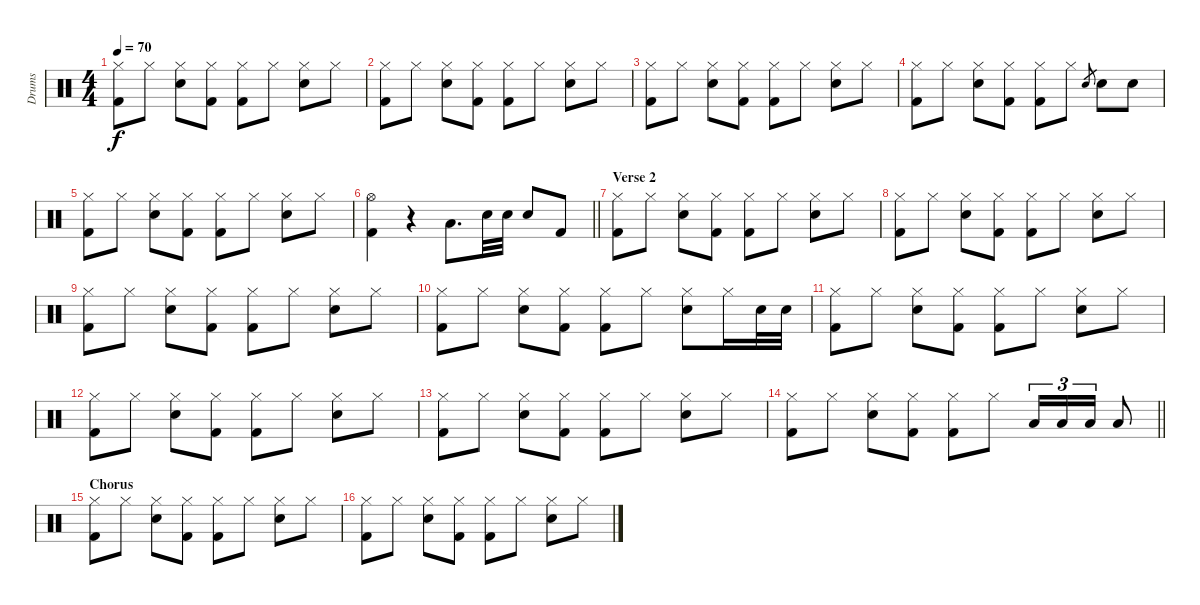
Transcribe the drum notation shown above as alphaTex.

\track ("Drums" "Drums") {instrument percussion}
\staff {score}
\articulation defaults
\ts (4 4)
\tempo 70
\clef neutral
\ks c
("Kick (hit) 2" "Hi-Hat (closed)").8{dy f} "Hi-Hat (closed)".8 ("Snare (hit) 2" "Hi-Hat (closed)").8 ("Kick (hit) 2" "Hi-Hat (closed)").8 ("Kick (hit) 2" "Hi-Hat (closed)").8 "Hi-Hat (closed)".8 ("Snare (hit) 2" "Hi-Hat (closed)").8 "Hi-Hat (closed)".8 |
("Kick (hit) 2" "Hi-Hat (closed)").8 "Hi-Hat (closed)".8 ("Snare (hit) 2" "Hi-Hat (closed)").8 ("Kick (hit) 2" "Hi-Hat (closed)").8 ("Kick (hit) 2" "Hi-Hat (closed)").8 "Hi-Hat (closed)".8 ("Snare (hit) 2" "Hi-Hat (closed)").8 "Hi-Hat (closed)".8 |
("Kick (hit) 2" "Hi-Hat (closed)").8 "Hi-Hat (closed)".8 ("Snare (hit) 2" "Hi-Hat (closed)").8 ("Kick (hit) 2" "Hi-Hat (closed)").8 ("Kick (hit) 2" "Hi-Hat (closed)").8 "Hi-Hat (closed)".8 ("Snare (hit) 2" "Hi-Hat (closed)").8 "Hi-Hat (closed)".8 |
("Kick (hit) 2" "Hi-Hat (closed)").8 "Hi-Hat (closed)".8 ("Snare (hit) 2" "Hi-Hat (closed)").8 ("Kick (hit) 2" "Hi-Hat (closed)").8 ("Kick (hit) 2" "Hi-Hat (closed)").8 "Hi-Hat (closed)".8 "Snare (hit) 2".8{gr} "Snare (hit) 2".8 "Snare (hit) 2".8 |
("Kick (hit) 2" "Hi-Hat (closed)").8 "Hi-Hat (closed)".8 ("Snare (hit) 2" "Hi-Hat (closed)").8 ("Kick (hit) 2" "Hi-Hat (closed)").8 ("Kick (hit) 2" "Hi-Hat (closed)").8 "Hi-Hat (closed)".8 ("Snare (hit) 2" "Hi-Hat (closed)").8 "Hi-Hat (closed)".8 |
\barLineRight lightlight
("Kick (hit) 2" "Hi-Hat (open)").4 r.4 "Low Tom (hit)".8{d} "Snare (hit) 2".32 "Snare (hit) 2".32 "Snare (hit) 2".8 "Kick (hit) 2".8 |
\section ("" "Verse 2")
("Kick (hit) 2" "Hi-Hat (closed)").8 "Hi-Hat (closed)".8 ("Snare (hit) 2" "Hi-Hat (closed)").8 ("Kick (hit) 2" "Hi-Hat (closed)").8 ("Kick (hit) 2" "Hi-Hat (closed)").8 "Hi-Hat (closed)".8 ("Snare (hit) 2" "Hi-Hat (closed)").8 "Hi-Hat (closed)".8 |
("Kick (hit) 2" "Hi-Hat (closed)").8 "Hi-Hat (closed)".8 ("Snare (hit) 2" "Hi-Hat (closed)").8 ("Kick (hit) 2" "Hi-Hat (closed)").8 ("Kick (hit) 2" "Hi-Hat (closed)").8 "Hi-Hat (closed)".8 ("Snare (hit) 2" "Hi-Hat (closed)").8 "Hi-Hat (closed)".8 |
("Kick (hit) 2" "Hi-Hat (closed)").8 "Hi-Hat (closed)".8 ("Snare (hit) 2" "Hi-Hat (closed)").8 ("Kick (hit) 2" "Hi-Hat (closed)").8 ("Kick (hit) 2" "Hi-Hat (closed)").8 "Hi-Hat (closed)".8 ("Snare (hit) 2" "Hi-Hat (closed)").8 "Hi-Hat (closed)".8 |
("Kick (hit) 2" "Hi-Hat (closed)").8 "Hi-Hat (closed)".8 ("Snare (hit) 2" "Hi-Hat (closed)").8 ("Kick (hit) 2" "Hi-Hat (closed)").8 ("Kick (hit) 2" "Hi-Hat (closed)").8 "Hi-Hat (closed)".8 ("Snare (hit) 2" "Hi-Hat (closed)").8 "Hi-Hat (closed)".16 "Snare (hit) 2".32 "Snare (hit) 2".32 |
("Kick (hit) 2" "Hi-Hat (closed)").8 "Hi-Hat (closed)".8 ("Snare (hit) 2" "Hi-Hat (closed)").8 ("Kick (hit) 2" "Hi-Hat (closed)").8 ("Kick (hit) 2" "Hi-Hat (closed)").8 "Hi-Hat (closed)".8 ("Snare (hit) 2" "Hi-Hat (closed)").8 "Hi-Hat (closed)".8 |
("Kick (hit) 2" "Hi-Hat (closed)").8 "Hi-Hat (closed)".8 ("Snare (hit) 2" "Hi-Hat (closed)").8 ("Kick (hit) 2" "Hi-Hat (closed)").8 ("Kick (hit) 2" "Hi-Hat (closed)").8 "Hi-Hat (closed)".8 ("Snare (hit) 2" "Hi-Hat (closed)").8 "Hi-Hat (closed)".8 |
("Kick (hit) 2" "Hi-Hat (closed)").8 "Hi-Hat (closed)".8 ("Snare (hit) 2" "Hi-Hat (closed)").8 ("Kick (hit) 2" "Hi-Hat (closed)").8 ("Kick (hit) 2" "Hi-Hat (closed)").8 "Hi-Hat (closed)".8 ("Snare (hit) 2" "Hi-Hat (closed)").8 "Hi-Hat (closed)".8 |
\barLineRight lightlight
("Kick (hit) 2" "Hi-Hat (closed)").8 "Hi-Hat (closed)".8 ("Snare (hit) 2" "Hi-Hat (closed)").8 ("Kick (hit) 2" "Hi-Hat (closed)").8 ("Kick (hit) 2" "Hi-Hat (closed)").8 "Hi-Hat (closed)".8 "Low Tom (hit)".16{tu (3 2)} "Low Tom (hit)".16{tu (3 2)} "Low Tom (hit)".16{tu (3 2)} "Low Tom (hit)".8 |
\section ("" "Chorus")
("Kick (hit) 2" "Hi-Hat (closed)").8 "Hi-Hat (closed)".8 ("Snare (hit) 2" "Hi-Hat (closed)").8 ("Kick (hit) 2" "Hi-Hat (closed)").8 ("Kick (hit) 2" "Hi-Hat (closed)").8 "Hi-Hat (closed)".8 ("Snare (hit) 2" "Hi-Hat (closed)").8 "Hi-Hat (closed)".8 |
("Kick (hit) 2" "Hi-Hat (closed)").8 "Hi-Hat (closed)".8 ("Snare (hit) 2" "Hi-Hat (closed)").8 ("Kick (hit) 2" "Hi-Hat (closed)").8 ("Kick (hit) 2" "Hi-Hat (closed)").8 "Hi-Hat (closed)".8 ("Snare (hit) 2" "Hi-Hat (closed)").8 "Hi-Hat (closed)".8
